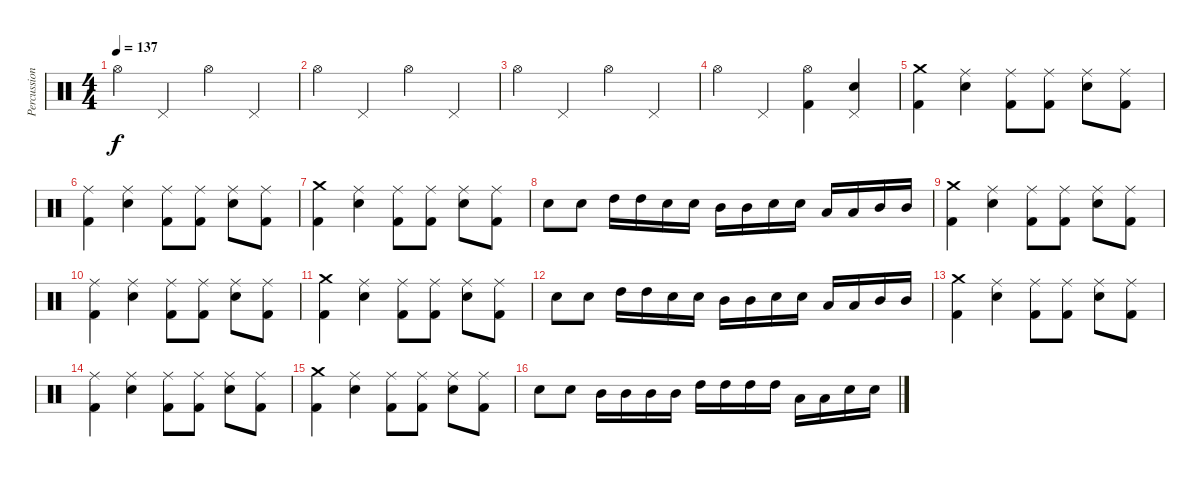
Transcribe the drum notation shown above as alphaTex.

\track ("Percussions" "Percussion") {instrument percussion}
\staff {score}
\articulation defaults
\ts (4 4)
\tempo 137
\clef neutral
\ks c "Hi-Hat (open)".4{dy f} "Pedal Hi-Hat (hit)".4 "Hi-Hat (open)".4 "Pedal Hi-Hat (hit)".4
|
"Hi-Hat (open)".4 "Pedal Hi-Hat (hit)".4 "Hi-Hat (open)".4 "Pedal Hi-Hat (hit)".4 |
"Hi-Hat (open)".4 "Pedal Hi-Hat (hit)".4 "Hi-Hat (open)".4 "Pedal Hi-Hat (hit)".4 |
"Hi-Hat (open)".4 "Pedal Hi-Hat (hit)".4 ("Hi-Hat (open)" "Kick (hit) 2").4 ("Pedal Hi-Hat (hit)" "Electric Snare (hit)").4 |
("Crash medium (hit)" "Kick (hit) 2").4 ("Ride (middle)" "Electric Snare (hit)").4 ("Ride (middle)" "Kick (hit) 2").8 ("Ride (middle)" "Kick (hit) 2").8 ("Ride (middle)" "Electric Snare (hit)").8 ("Ride (middle)" "Kick (hit) 2").8 |
("Ride (middle)" "Kick (hit) 2").4 ("Ride (middle)" "Electric Snare (hit)").4 ("Ride (middle)" "Kick (hit) 2").8 ("Ride (middle)" "Kick (hit) 2").8 ("Ride (middle)" "Electric Snare (hit)").8 ("Ride (middle)" "Kick (hit) 2").8 |
("Crash medium (hit)" "Kick (hit) 2").4 ("Ride (middle)" "Electric Snare (hit)").4 ("Ride (middle)" "Kick (hit) 2").8 ("Ride (middle)" "Kick (hit) 2").8 ("Ride (middle)" "Electric Snare (hit)").8 ("Ride (middle)" "Kick (hit) 2").8 |
"Electric Snare (hit)".8 "Electric Snare (hit)".8 "High Tom (hit)".16 "High Tom (hit)".16 "Electric Snare (hit)".16 "Electric Snare (hit)".16 "Mid Tom (hit)".16 "Mid Tom (hit)".16 "Electric Snare (hit)".16 "Electric Snare (hit)".16 "Low Tom (hit)".16 "Low Tom (hit)".16 "Mid Tom (hit)".16 "Mid Tom (hit)".16 |
("Crash medium (hit)" "Kick (hit) 2").4 ("Ride (middle)" "Electric Snare (hit)").4 ("Ride (middle)" "Kick (hit) 2").8 ("Ride (middle)" "Kick (hit) 2").8 ("Ride (middle)" "Electric Snare (hit)").8 ("Ride (middle)" "Kick (hit) 2").8 |
("Ride (middle)" "Kick (hit) 2").4 ("Ride (middle)" "Electric Snare (hit)").4 ("Ride (middle)" "Kick (hit) 2").8 ("Ride (middle)" "Kick (hit) 2").8 ("Ride (middle)" "Electric Snare (hit)").8 ("Ride (middle)" "Kick (hit) 2").8 |
("Crash medium (hit)" "Kick (hit) 2").4 ("Ride (middle)" "Electric Snare (hit)").4 ("Ride (middle)" "Kick (hit) 2").8 ("Ride (middle)" "Kick (hit) 2").8 ("Ride (middle)" "Electric Snare (hit)").8 ("Ride (middle)" "Kick (hit) 2").8 |
"Electric Snare (hit)".8 "Electric Snare (hit)".8 "High Tom (hit)".16 "High Tom (hit)".16 "Electric Snare (hit)".16 "Electric Snare (hit)".16 "Mid Tom (hit)".16 "Mid Tom (hit)".16 "Electric Snare (hit)".16 "Electric Snare (hit)".16 "Low Tom (hit)".16 "Low Tom (hit)".16 "Mid Tom (hit)".16 "Mid Tom (hit)".16 |
("Crash medium (hit)" "Kick (hit) 2").4 ("Ride (middle)" "Electric Snare (hit)").4 ("Ride (middle)" "Kick (hit) 2").8 ("Ride (middle)" "Kick (hit) 2").8 ("Ride (middle)" "Electric Snare (hit)").8 ("Ride (middle)" "Kick (hit) 2").8 |
("Ride (middle)" "Kick (hit) 2").4 ("Ride (middle)" "Electric Snare (hit)").4 ("Ride (middle)" "Kick (hit) 2").8 ("Ride (middle)" "Kick (hit) 2").8 ("Ride (middle)" "Electric Snare (hit)").8 ("Ride (middle)" "Kick (hit) 2").8 |
("Crash medium (hit)" "Kick (hit) 2").4 ("Ride (middle)" "Electric Snare (hit)").4 ("Ride (middle)" "Kick (hit) 2").8 ("Ride (middle)" "Kick (hit) 2").8 ("Ride (middle)" "Electric Snare (hit)").8 ("Ride (middle)" "Kick (hit) 2").8 |
"Electric Snare (hit)".8 "Electric Snare (hit)".8 "Mid Tom (hit)".16 "Mid Tom (hit)".16 "Mid Tom (hit)".16 "Mid Tom (hit)".16 "High Tom (hit)".16 "High Tom (hit)".16 "High Tom (hit)".16 "High Tom (hit)".16 "Low Tom (hit)".16 "Low Tom (hit)".16 "Electric Snare (hit)".16 "Electric Snare (hit)".16
